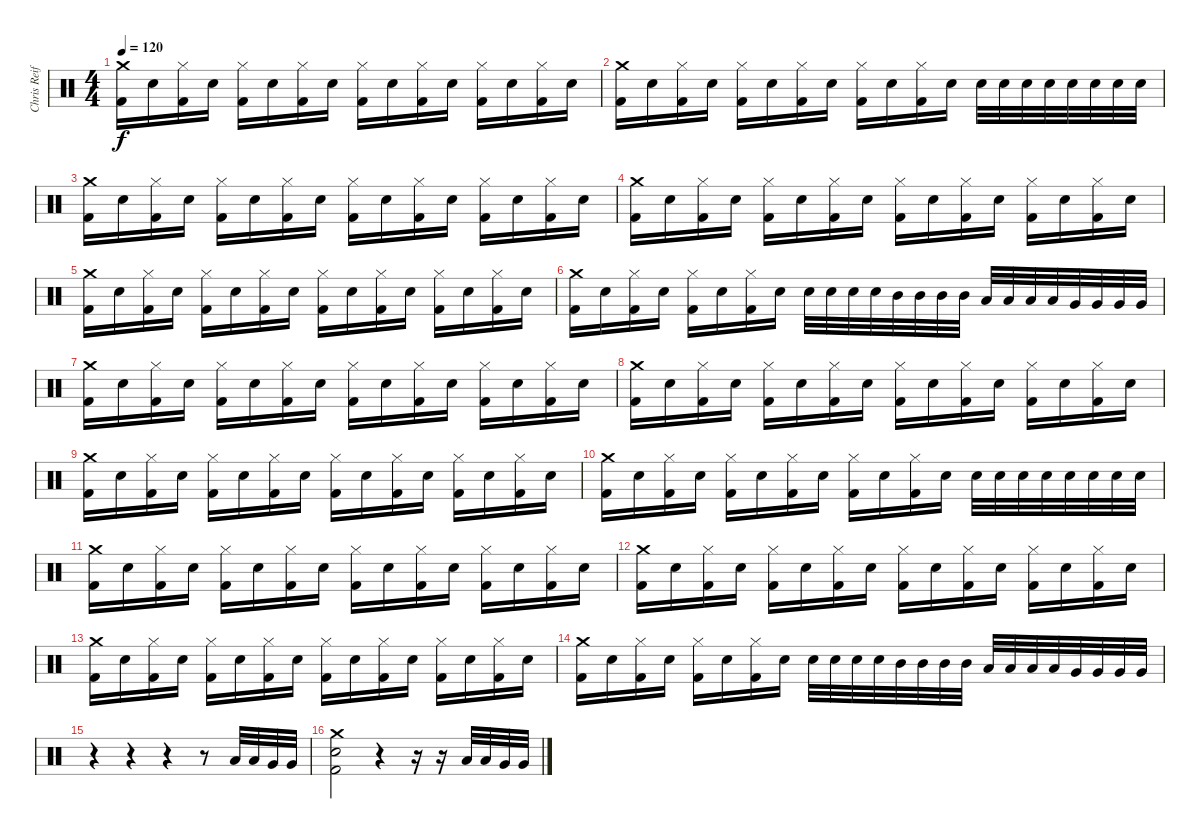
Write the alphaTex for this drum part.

\track ("Chris Reifert" "Chris Reif") {instrument percussion}
\staff {score}
\articulation defaults
\ts (4 4)
\tempo 120
\clef neutral
\ks c
("Crash medium (hit)" "Kick (hit) 2").16{dy f} "Electric Snare (hit)".16 ("Hi-Hat (closed)" "Kick (hit) 2").16 "Electric Snare (hit)".16 ("Hi-Hat (closed)" "Kick (hit) 2").16 "Electric Snare (hit)".16 ("Hi-Hat (closed)" "Kick (hit) 2").16 "Electric Snare (hit)".16 ("Hi-Hat (closed)" "Kick (hit) 2").16 "Electric Snare (hit)".16 ("Hi-Hat (closed)" "Kick (hit) 2").16 "Electric Snare (hit)".16 ("Hi-Hat (closed)" "Kick (hit) 2").16 "Electric Snare (hit)".16 ("Hi-Hat (closed)" "Kick (hit) 2").16 "Electric Snare (hit)".16 |
("Crash medium (hit)" "Kick (hit) 2").16 "Electric Snare (hit)".16 ("Hi-Hat (closed)" "Kick (hit) 2").16 "Electric Snare (hit)".16 ("Hi-Hat (closed)" "Kick (hit) 2").16 "Electric Snare (hit)".16 ("Hi-Hat (closed)" "Kick (hit) 2").16 "Electric Snare (hit)".16 ("Hi-Hat (closed)" "Kick (hit) 2").16 "Electric Snare (hit)".16 ("Hi-Hat (closed)" "Kick (hit) 2").16 "Electric Snare (hit)".16 "Electric Snare (hit)".32 "Electric Snare (hit)".32 "Electric Snare (hit)".32 "Electric Snare (hit)".32 "Electric Snare (hit)".32 "Electric Snare (hit)".32 "Electric Snare (hit)".32 "Electric Snare (hit)".32 |
("Crash medium (hit)" "Kick (hit) 2").16 "Electric Snare (hit)".16 ("Hi-Hat (closed)" "Kick (hit) 2").16 "Electric Snare (hit)".16 ("Hi-Hat (closed)" "Kick (hit) 2").16 "Electric Snare (hit)".16 ("Hi-Hat (closed)" "Kick (hit) 2").16 "Electric Snare (hit)".16 ("Hi-Hat (closed)" "Kick (hit) 2").16 "Electric Snare (hit)".16 ("Hi-Hat (closed)" "Kick (hit) 2").16 "Electric Snare (hit)".16 ("Hi-Hat (closed)" "Kick (hit) 2").16 "Electric Snare (hit)".16 ("Hi-Hat (closed)" "Kick (hit) 2").16 "Electric Snare (hit)".16 |
("Crash medium (hit)" "Kick (hit) 2").16 "Electric Snare (hit)".16 ("Hi-Hat (closed)" "Kick (hit) 2").16 "Electric Snare (hit)".16 ("Hi-Hat (closed)" "Kick (hit) 2").16 "Electric Snare (hit)".16 ("Hi-Hat (closed)" "Kick (hit) 2").16 "Electric Snare (hit)".16 ("Hi-Hat (closed)" "Kick (hit) 2").16 "Electric Snare (hit)".16 ("Hi-Hat (closed)" "Kick (hit) 2").16 "Electric Snare (hit)".16 ("Hi-Hat (closed)" "Kick (hit) 2").16 "Electric Snare (hit)".16 ("Hi-Hat (closed)" "Kick (hit) 2").16 "Electric Snare (hit)".16 |
("Crash medium (hit)" "Kick (hit) 2").16 "Electric Snare (hit)".16 ("Hi-Hat (closed)" "Kick (hit) 2").16 "Electric Snare (hit)".16 ("Hi-Hat (closed)" "Kick (hit) 2").16 "Electric Snare (hit)".16 ("Hi-Hat (closed)" "Kick (hit) 2").16 "Electric Snare (hit)".16 ("Hi-Hat (closed)" "Kick (hit) 2").16 "Electric Snare (hit)".16 ("Hi-Hat (closed)" "Kick (hit) 2").16 "Electric Snare (hit)".16 ("Hi-Hat (closed)" "Kick (hit) 2").16 "Electric Snare (hit)".16 ("Hi-Hat (closed)" "Kick (hit) 2").16 "Electric Snare (hit)".16 |
("Crash medium (hit)" "Kick (hit) 2").16 "Electric Snare (hit)".16 ("Hi-Hat (closed)" "Kick (hit) 2").16 "Electric Snare (hit)".16 ("Hi-Hat (closed)" "Kick (hit) 2").16 "Electric Snare (hit)".16 ("Hi-Hat (closed)" "Kick (hit) 2").16 "Electric Snare (hit)".16 "Electric Snare (hit)".32 "Electric Snare (hit)".32 "Electric Snare (hit)".32 "Electric Snare (hit)".32 "Mid Tom (hit)".32 "Mid Tom (hit)".32 "Mid Tom (hit)".32 "Mid Tom (hit)".32 "Low Tom (hit)".32 "Low Tom (hit)".32 "Low Tom (hit)".32 "Low Tom (hit)".32 "Very Low Tom (hit)".32 "Very Low Tom (hit)".32 "Very Low Tom (hit)".32 "Very Low Tom (hit)".32 |
("Crash medium (hit)" "Kick (hit) 2").16 "Electric Snare (hit)".16 ("Hi-Hat (closed)" "Kick (hit) 2").16 "Electric Snare (hit)".16 ("Hi-Hat (closed)" "Kick (hit) 2").16 "Electric Snare (hit)".16 ("Hi-Hat (closed)" "Kick (hit) 2").16 "Electric Snare (hit)".16 ("Hi-Hat (closed)" "Kick (hit) 2").16 "Electric Snare (hit)".16 ("Hi-Hat (closed)" "Kick (hit) 2").16 "Electric Snare (hit)".16 ("Hi-Hat (closed)" "Kick (hit) 2").16 "Electric Snare (hit)".16 ("Hi-Hat (closed)" "Kick (hit) 2").16 "Electric Snare (hit)".16 |
("Crash medium (hit)" "Kick (hit) 2").16 "Electric Snare (hit)".16 ("Hi-Hat (closed)" "Kick (hit) 2").16 "Electric Snare (hit)".16 ("Hi-Hat (closed)" "Kick (hit) 2").16 "Electric Snare (hit)".16 ("Hi-Hat (closed)" "Kick (hit) 2").16 "Electric Snare (hit)".16 ("Hi-Hat (closed)" "Kick (hit) 2").16 "Electric Snare (hit)".16 ("Hi-Hat (closed)" "Kick (hit) 2").16 "Electric Snare (hit)".16 ("Hi-Hat (closed)" "Kick (hit) 2").16 "Electric Snare (hit)".16 ("Hi-Hat (closed)" "Kick (hit) 2").16 "Electric Snare (hit)".16 |
("Crash medium (hit)" "Kick (hit) 2").16 "Electric Snare (hit)".16 ("Hi-Hat (closed)" "Kick (hit) 2").16 "Electric Snare (hit)".16 ("Hi-Hat (closed)" "Kick (hit) 2").16 "Electric Snare (hit)".16 ("Hi-Hat (closed)" "Kick (hit) 2").16 "Electric Snare (hit)".16 ("Hi-Hat (closed)" "Kick (hit) 2").16 "Electric Snare (hit)".16 ("Hi-Hat (closed)" "Kick (hit) 2").16 "Electric Snare (hit)".16 ("Hi-Hat (closed)" "Kick (hit) 2").16 "Electric Snare (hit)".16 ("Hi-Hat (closed)" "Kick (hit) 2").16 "Electric Snare (hit)".16 |
("Crash medium (hit)" "Kick (hit) 2").16 "Electric Snare (hit)".16 ("Hi-Hat (closed)" "Kick (hit) 2").16 "Electric Snare (hit)".16 ("Hi-Hat (closed)" "Kick (hit) 2").16 "Electric Snare (hit)".16 ("Hi-Hat (closed)" "Kick (hit) 2").16 "Electric Snare (hit)".16 ("Hi-Hat (closed)" "Kick (hit) 2").16 "Electric Snare (hit)".16 ("Hi-Hat (closed)" "Kick (hit) 2").16 "Electric Snare (hit)".16 "Electric Snare (hit)".32 "Electric Snare (hit)".32 "Electric Snare (hit)".32 "Electric Snare (hit)".32 "Electric Snare (hit)".32 "Electric Snare (hit)".32 "Electric Snare (hit)".32 "Electric Snare (hit)".32 |
("Crash medium (hit)" "Kick (hit) 2").16 "Electric Snare (hit)".16 ("Hi-Hat (closed)" "Kick (hit) 2").16 "Electric Snare (hit)".16 ("Hi-Hat (closed)" "Kick (hit) 2").16 "Electric Snare (hit)".16 ("Hi-Hat (closed)" "Kick (hit) 2").16 "Electric Snare (hit)".16 ("Hi-Hat (closed)" "Kick (hit) 2").16 "Electric Snare (hit)".16 ("Hi-Hat (closed)" "Kick (hit) 2").16 "Electric Snare (hit)".16 ("Hi-Hat (closed)" "Kick (hit) 2").16 "Electric Snare (hit)".16 ("Hi-Hat (closed)" "Kick (hit) 2").16 "Electric Snare (hit)".16 |
("Crash medium (hit)" "Kick (hit) 2").16 "Electric Snare (hit)".16 ("Hi-Hat (closed)" "Kick (hit) 2").16 "Electric Snare (hit)".16 ("Hi-Hat (closed)" "Kick (hit) 2").16 "Electric Snare (hit)".16 ("Hi-Hat (closed)" "Kick (hit) 2").16 "Electric Snare (hit)".16 ("Hi-Hat (closed)" "Kick (hit) 2").16 "Electric Snare (hit)".16 ("Hi-Hat (closed)" "Kick (hit) 2").16 "Electric Snare (hit)".16 ("Hi-Hat (closed)" "Kick (hit) 2").16 "Electric Snare (hit)".16 ("Hi-Hat (closed)" "Kick (hit) 2").16 "Electric Snare (hit)".16 |
("Crash medium (hit)" "Kick (hit) 2").16 "Electric Snare (hit)".16 ("Hi-Hat (closed)" "Kick (hit) 2").16 "Electric Snare (hit)".16 ("Hi-Hat (closed)" "Kick (hit) 2").16 "Electric Snare (hit)".16 ("Hi-Hat (closed)" "Kick (hit) 2").16 "Electric Snare (hit)".16 ("Hi-Hat (closed)" "Kick (hit) 2").16 "Electric Snare (hit)".16 ("Hi-Hat (closed)" "Kick (hit) 2").16 "Electric Snare (hit)".16 ("Hi-Hat (closed)" "Kick (hit) 2").16 "Electric Snare (hit)".16 ("Hi-Hat (closed)" "Kick (hit) 2").16 "Electric Snare (hit)".16 |
("Crash medium (hit)" "Kick (hit) 2").16 "Electric Snare (hit)".16 ("Hi-Hat (closed)" "Kick (hit) 2").16 "Electric Snare (hit)".16 ("Hi-Hat (closed)" "Kick (hit) 2").16 "Electric Snare (hit)".16 ("Hi-Hat (closed)" "Kick (hit) 2").16 "Electric Snare (hit)".16 "Electric Snare (hit)".32 "Electric Snare (hit)".32 "Electric Snare (hit)".32 "Electric Snare (hit)".32 "Mid Tom (hit)".32 "Mid Tom (hit)".32 "Mid Tom (hit)".32 "Mid Tom (hit)".32 "Low Tom (hit)".32 "Low Tom (hit)".32 "Low Tom (hit)".32 "Low Tom (hit)".32 "Very Low Tom (hit)".32 "Very Low Tom (hit)".32 "Very Low Tom (hit)".32 "Very Low Tom (hit)".32 |
r.4 r.4 r.4 r.8 "Low Tom (hit)".32 "Low Tom (hit)".32 "Very Low Tom (hit)".32 "Very Low Tom (hit)".32 |
("Crash medium (hit)" "Electric Snare (hit)" "Kick (hit) 2").2 r.4 r.16 r.16 "Low Tom (hit)".32 "Low Tom (hit)".32 "Very Low Tom (hit)".32 "Very Low Tom (hit)".32
